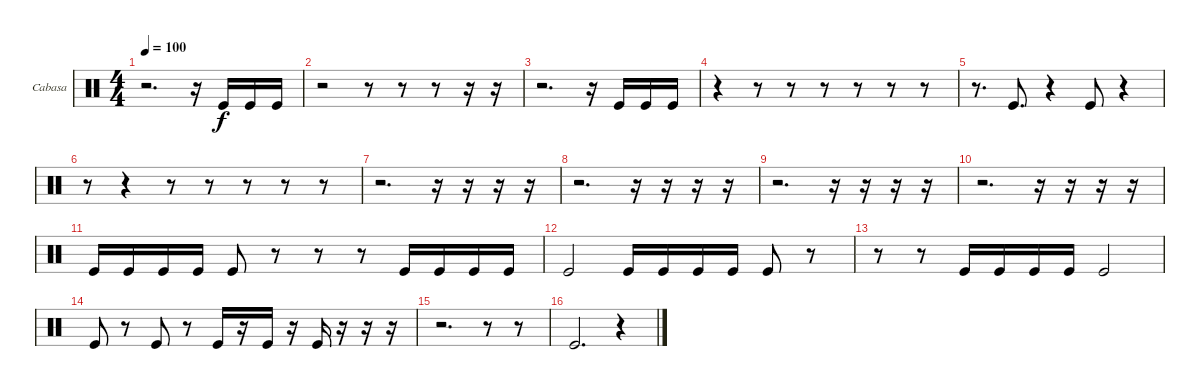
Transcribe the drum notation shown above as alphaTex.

\bracketExtendMode groupsimilarinstruments
\firstSystemTrackNameOrientation horizontal
\otherSystemsTrackNameOrientation horizontal
\track ("Cabasa" "Cabasa") {instrument percussion}
\staff {score}
\articulation defaults
\ts (4 4)
\tempo 100
\clef neutral
\ks c
r.2{d dy f} r.16 "Kick (hit)".16 "Kick (hit)".16 "Kick (hit)".16 |
r.2 r.8 r.8 r.8 r.16 r.16 |
r.2{d} r.16 "Kick (hit)".16 "Kick (hit)".16 "Kick (hit)".16 |
r.4 r.8 r.8 r.8 r.8 r.8 r.8 |
r.8{d} "Kick (hit)".8{d} r.4 "Kick (hit)".8 r.4 |
r.8 r.4 r.8 r.8 r.8 r.8 r.8 |
r.2{d} r.16 r.16 r.16 r.16 |
r.2{d} r.16 r.16 r.16 r.16 |
r.2{d} r.16 r.16 r.16 r.16 |
r.2{d} r.16 r.16 r.16 r.16 |
"Kick (hit)".16 "Kick (hit)".16 "Kick (hit)".16 "Kick (hit)".16 "Kick (hit)".8 r.8 r.8 r.8 "Kick (hit)".16 "Kick (hit)".16 "Kick (hit)".16 "Kick (hit)".16 |
"Kick (hit)".2 "Kick (hit)".16 "Kick (hit)".16 "Kick (hit)".16 "Kick (hit)".16 "Kick (hit)".8 r.8 |
r.8 r.8 "Kick (hit)".16 "Kick (hit)".16 "Kick (hit)".16 "Kick (hit)".16 "Kick (hit)".2 |
"Kick (hit)".8 r.8 "Kick (hit)".8 r.8 "Kick (hit)".16 r.16 "Kick (hit)".16 r.16 "Kick (hit)".16 r.16 r.16 r.16 |
r.2{d} r.8 r.8 |
"Kick (hit)".2{d} r.4
